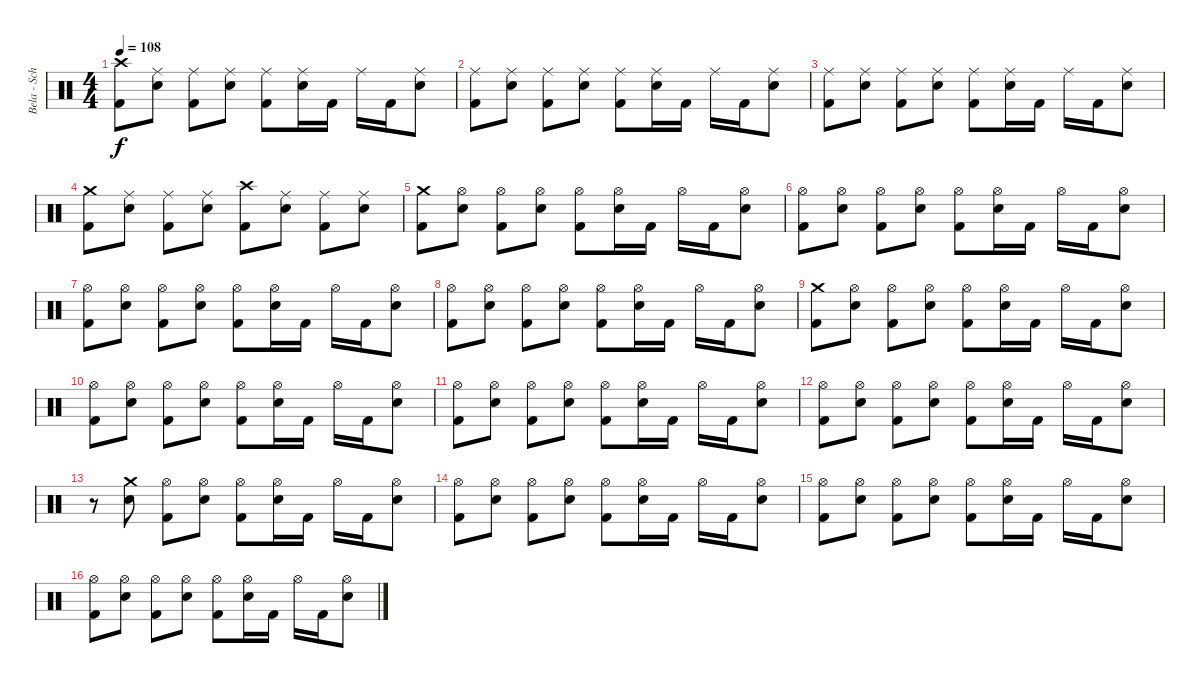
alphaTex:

\track ("Bela - Schlagzeug" "Bela - Sch") {instrument percussion}
\staff {score}
\articulation defaults
\ts (4 4)
\tempo 108
\clef neutral
\ks c
("Crash high (hit)" "Kick (hit) 2").8{dy f} ("Ride (middle)" "Snare (hit) 2").8 ("Ride (middle)" "Kick (hit) 2").8 ("Ride (middle)" "Snare (hit) 2").8 ("Ride (middle)" "Kick (hit) 2").8 ("Ride (middle)" "Snare (hit) 2").16 "Kick (hit) 2".16 "Ride (middle)".16 "Kick (hit) 2".16 ("Ride (middle)" "Snare (hit) 2").8 |
("Ride (middle)" "Kick (hit) 2").8 ("Ride (middle)" "Snare (hit) 2").8 ("Ride (middle)" "Kick (hit) 2").8 ("Ride (middle)" "Snare (hit) 2").8 ("Ride (middle)" "Kick (hit) 2").8 ("Ride (middle)" "Snare (hit) 2").16 "Kick (hit) 2".16 "Ride (middle)".16 "Kick (hit) 2".16 ("Ride (middle)" "Snare (hit) 2").8 |
("Ride (middle)" "Kick (hit) 2").8 ("Ride (middle)" "Snare (hit) 2").8 ("Ride (middle)" "Kick (hit) 2").8 ("Ride (middle)" "Snare (hit) 2").8 ("Ride (middle)" "Kick (hit) 2").8 ("Ride (middle)" "Snare (hit) 2").16 "Kick (hit) 2".16 "Ride (middle)".16 "Kick (hit) 2".16 ("Ride (middle)" "Snare (hit) 2").8 |
("Crash medium (hit)" "Kick (hit) 2").8 ("Ride (middle)" "Snare (hit) 2").8 ("Ride (middle)" "Kick (hit) 2").8 ("Ride (middle)" "Snare (hit) 2").8 ("Crash high (hit)" "Kick (hit) 2").8 ("Ride (middle)" "Snare (hit) 2").8 ("Ride (middle)" "Kick (hit) 2").8 ("Ride (middle)" "Snare (hit) 2").8 |
("Crash medium (hit)" "Kick (hit) 2").8 ("Hi-Hat (open)" "Snare (hit) 2").8 ("Hi-Hat (open)" "Kick (hit) 2").8 ("Hi-Hat (open)" "Snare (hit) 2").8 ("Hi-Hat (open)" "Kick (hit) 2").8 ("Hi-Hat (open)" "Snare (hit) 2").16 "Kick (hit) 2".16 "Hi-Hat (open)".16 "Kick (hit) 2".16 ("Hi-Hat (open)" "Snare (hit) 2").8 |
("Hi-Hat (open)" "Kick (hit) 2").8 ("Hi-Hat (open)" "Snare (hit) 2").8 ("Hi-Hat (open)" "Kick (hit) 2").8 ("Hi-Hat (open)" "Snare (hit) 2").8 ("Hi-Hat (open)" "Kick (hit) 2").8 ("Hi-Hat (open)" "Snare (hit) 2").16 "Kick (hit) 2".16 "Hi-Hat (open)".16 "Kick (hit) 2".16 ("Hi-Hat (open)" "Snare (hit) 2").8 |
("Hi-Hat (open)" "Kick (hit) 2").8 ("Hi-Hat (open)" "Snare (hit) 2").8 ("Hi-Hat (open)" "Kick (hit) 2").8 ("Hi-Hat (open)" "Snare (hit) 2").8 ("Hi-Hat (open)" "Kick (hit) 2").8 ("Hi-Hat (open)" "Snare (hit) 2").16 "Kick (hit) 2".16 "Hi-Hat (open)".16 "Kick (hit) 2".16 ("Hi-Hat (open)" "Snare (hit) 2").8 |
("Hi-Hat (open)" "Kick (hit) 2").8 ("Hi-Hat (open)" "Snare (hit) 2").8 ("Hi-Hat (open)" "Kick (hit) 2").8 ("Hi-Hat (open)" "Snare (hit) 2").8 ("Hi-Hat (open)" "Kick (hit) 2").8 ("Hi-Hat (open)" "Snare (hit) 2").16 "Kick (hit) 2".16 "Hi-Hat (open)".16 "Kick (hit) 2".16 ("Hi-Hat (open)" "Snare (hit) 2").8 |
("Crash medium (hit)" "Kick (hit) 2").8 ("Hi-Hat (open)" "Snare (hit) 2").8 ("Hi-Hat (open)" "Kick (hit) 2").8 ("Hi-Hat (open)" "Snare (hit) 2").8 ("Hi-Hat (open)" "Kick (hit) 2").8 ("Hi-Hat (open)" "Snare (hit) 2").16 "Kick (hit) 2".16 "Hi-Hat (open)".16 "Kick (hit) 2".16 ("Hi-Hat (open)" "Snare (hit) 2").8 |
("Hi-Hat (open)" "Kick (hit) 2").8 ("Hi-Hat (open)" "Snare (hit) 2").8 ("Hi-Hat (open)" "Kick (hit) 2").8 ("Hi-Hat (open)" "Snare (hit) 2").8 ("Hi-Hat (open)" "Kick (hit) 2").8 ("Hi-Hat (open)" "Snare (hit) 2").16 "Kick (hit) 2".16 "Hi-Hat (open)".16 "Kick (hit) 2".16 ("Hi-Hat (open)" "Snare (hit) 2").8 |
("Hi-Hat (open)" "Kick (hit) 2").8 ("Hi-Hat (open)" "Snare (hit) 2").8 ("Hi-Hat (open)" "Kick (hit) 2").8 ("Hi-Hat (open)" "Snare (hit) 2").8 ("Hi-Hat (open)" "Kick (hit) 2").8 ("Hi-Hat (open)" "Snare (hit) 2").16 "Kick (hit) 2".16 "Hi-Hat (open)".16 "Kick (hit) 2".16 ("Hi-Hat (open)" "Snare (hit) 2").8 |
("Hi-Hat (open)" "Kick (hit) 2").8 ("Hi-Hat (open)" "Snare (hit) 2").8 ("Hi-Hat (open)" "Kick (hit) 2").8 ("Hi-Hat (open)" "Snare (hit) 2").8 ("Hi-Hat (open)" "Kick (hit) 2").8 ("Hi-Hat (open)" "Snare (hit) 2").16 "Kick (hit) 2".16 "Hi-Hat (open)".16 "Kick (hit) 2".16 ("Hi-Hat (open)" "Snare (hit) 2").8 |
r.8 ("Crash medium (hit)" "Snare (hit) 2").8 ("Hi-Hat (open)" "Kick (hit) 2").8 ("Hi-Hat (open)" "Snare (hit) 2").8 ("Hi-Hat (open)" "Kick (hit) 2").8 ("Hi-Hat (open)" "Snare (hit) 2").16 "Kick (hit) 2".16 "Hi-Hat (open)".16 "Kick (hit) 2".16 ("Hi-Hat (open)" "Snare (hit) 2").8 |
("Hi-Hat (open)" "Kick (hit) 2").8 ("Hi-Hat (open)" "Snare (hit) 2").8 ("Hi-Hat (open)" "Kick (hit) 2").8 ("Hi-Hat (open)" "Snare (hit) 2").8 ("Hi-Hat (open)" "Kick (hit) 2").8 ("Hi-Hat (open)" "Snare (hit) 2").16 "Kick (hit) 2".16 "Hi-Hat (open)".16 "Kick (hit) 2".16 ("Hi-Hat (open)" "Snare (hit) 2").8 |
("Hi-Hat (open)" "Kick (hit) 2").8 ("Hi-Hat (open)" "Snare (hit) 2").8 ("Hi-Hat (open)" "Kick (hit) 2").8 ("Hi-Hat (open)" "Snare (hit) 2").8 ("Hi-Hat (open)" "Kick (hit) 2").8 ("Hi-Hat (open)" "Snare (hit) 2").16 "Kick (hit) 2".16 "Hi-Hat (open)".16 "Kick (hit) 2".16 ("Hi-Hat (open)" "Snare (hit) 2").8 |
("Hi-Hat (open)" "Kick (hit) 2").8 ("Hi-Hat (open)" "Snare (hit) 2").8 ("Hi-Hat (open)" "Kick (hit) 2").8 ("Hi-Hat (open)" "Snare (hit) 2").8 ("Hi-Hat (open)" "Kick (hit) 2").8 ("Hi-Hat (open)" "Snare (hit) 2").16 "Kick (hit) 2".16 "Hi-Hat (open)".16 "Kick (hit) 2".16 ("Hi-Hat (open)" "Snare (hit) 2").8
